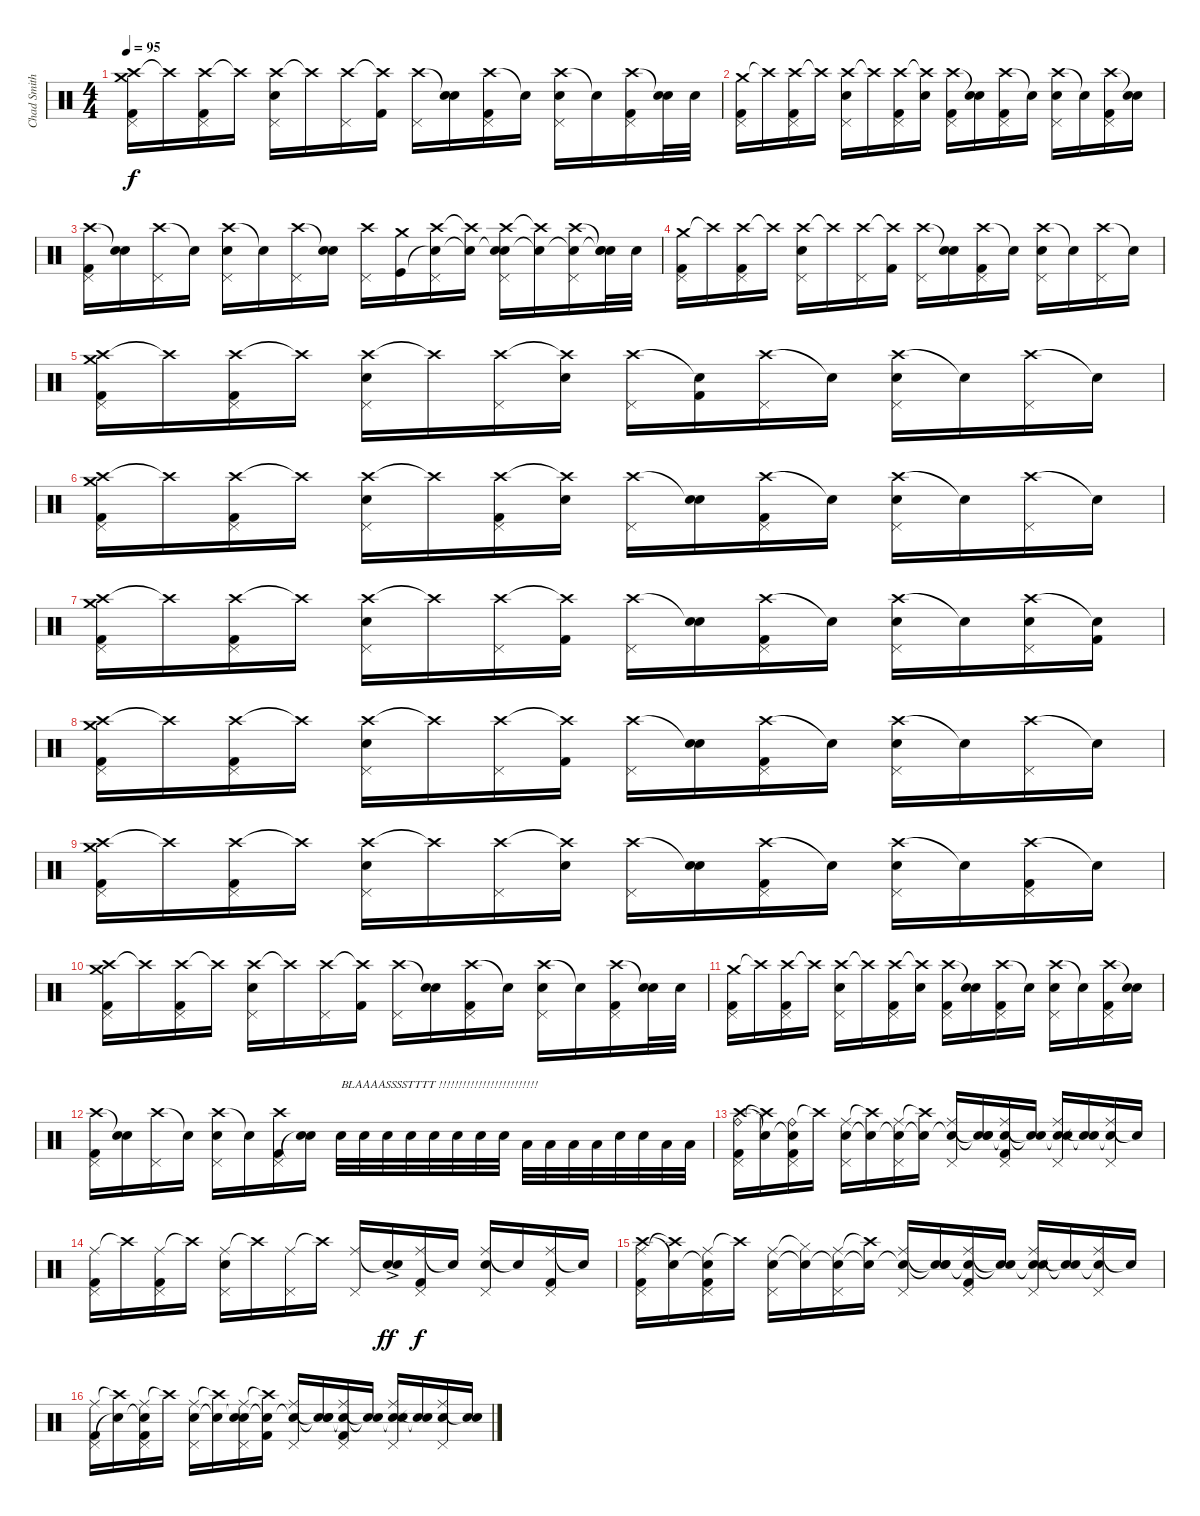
\track ("Chad Smith" "Chad Smith") {instrument percussion}
\staff {score}
\articulation defaults
\ts (4 4)
\tempo 95
\clef neutral
\ks c
("Crash high (hit)" "Crash medium (hit)" "Pedal Hi-Hat (hit)" "Kick (hit) 2").16{dy f} "Crash high (hit)"{t}.16 ("Crash high (hit)" "Pedal Hi-Hat (hit)" "Kick (hit) 2").16 "Crash high (hit)"{t}.16 ("Crash high (hit)" "Snare (hit) 2" "Pedal Hi-Hat (hit)").16 "Crash high (hit)"{t}.16 ("Crash high (hit)" "Pedal Hi-Hat (hit)").16 ("Crash high (hit)"{t} "Kick (hit) 2").16 ("Crash high (hit)" "Pedal Hi-Hat (hit)").16 ("Snare (hit)"{t} "Snare (hit) 2").16 ("Crash high (hit)" "Pedal Hi-Hat (hit)" "Kick (hit) 2").16 "Snare (hit)"{t}.16 ("Crash high (hit)" "Snare (hit) 2" "Pedal Hi-Hat (hit)").16 "Snare (hit)"{t}.16 ("Crash high (hit)" "Pedal Hi-Hat (hit)" "Kick (hit) 2").16 ("Snare (hit)"{t} "Snare (hit) 2").32 "Snare (hit) 2".32 |
("Crash medium (hit)" "Pedal Hi-Hat (hit)" "Kick (hit) 2").16 "Crash high (hit)"{t}.16 ("Crash high (hit)" "Pedal Hi-Hat (hit)" "Kick (hit) 2").16 "Crash high (hit)"{t}.16 ("Crash high (hit)" "Snare (hit) 2" "Pedal Hi-Hat (hit)").16 "Crash high (hit)"{t}.16 ("Crash high (hit)" "Pedal Hi-Hat (hit)" "Kick (hit) 2").16 ("Crash high (hit)"{t} "Snare (hit) 2").16 ("Crash high (hit)" "Pedal Hi-Hat (hit)" "Kick (hit) 2").16 ("Snare (hit)"{t} "Snare (hit) 2").16 ("Crash high (hit)" "Pedal Hi-Hat (hit)" "Kick (hit) 2").16 "Snare (hit)"{t}.16 ("Crash high (hit)" "Snare (hit) 2" "Pedal Hi-Hat (hit)").16 "Snare (hit)"{t}.16 ("Crash high (hit)" "Pedal Hi-Hat (hit)" "Kick (hit) 2").16 ("Snare (hit)"{t} "Snare (hit) 2").16 |
("Crash high (hit)" "Pedal Hi-Hat (hit)" "Kick (hit) 2").16 ("Snare (hit)"{t} "Snare (hit) 2").16 ("Crash high (hit)" "Pedal Hi-Hat (hit)").16 "Snare (hit)"{t}.16 ("Crash high (hit)" "Snare (hit) 2" "Pedal Hi-Hat (hit)").16 "Snare (hit)"{t}.16 ("Crash high (hit)" "Pedal Hi-Hat (hit)").16 ("Snare (hit)"{t} "Snare (hit) 2").16 ("Crash high (hit)" "Pedal Hi-Hat (hit)").16 ("Crash medium (hit)" "Kick (hit)").16 ("Crash high (hit)" "Snare (hit)"{t} "Pedal Hi-Hat (hit)").16 ("Crash high (hit)"{t} "Snare (hit)"{t}).16 ("Crash high (hit)" "Snare (hit)"{t} "Snare (hit) 2" "Pedal Hi-Hat (hit)").16 ("Crash high (hit)"{t} "Snare (hit)"{t}).16 ("Crash high (hit)" "Snare (hit)"{t} "Pedal Hi-Hat (hit)").16 ("Snare (hit)"{t} "Snare (hit)"{t} "Snare (hit) 2").32 "Snare (hit) 2".32 |
("Crash medium (hit)" "Pedal Hi-Hat (hit)" "Kick (hit) 2").16 "Crash high (hit)"{t}.16 ("Crash high (hit)" "Pedal Hi-Hat (hit)" "Kick (hit) 2").16 "Crash high (hit)"{t}.16 ("Crash high (hit)" "Snare (hit) 2" "Pedal Hi-Hat (hit)").16 "Crash high (hit)"{t}.16 ("Crash high (hit)" "Pedal Hi-Hat (hit)").16 ("Crash high (hit)"{t} "Kick (hit) 2").16 ("Crash high (hit)" "Pedal Hi-Hat (hit)").16 ("Snare (hit)"{t} "Snare (hit) 2").16 ("Crash high (hit)" "Pedal Hi-Hat (hit)" "Kick (hit) 2").16 "Snare (hit)"{t}.16 ("Crash high (hit)" "Snare (hit) 2" "Pedal Hi-Hat (hit)").16 "Snare (hit)"{t}.16 ("Crash high (hit)" "Pedal Hi-Hat (hit)").16 "Snare (hit)"{t}.16 |
("Crash high (hit)" "Crash medium (hit)" "Pedal Hi-Hat (hit)" "Kick (hit) 2").16 "Crash high (hit)"{t}.16 ("Crash high (hit)" "Pedal Hi-Hat (hit)" "Kick (hit) 2").16 "Crash high (hit)"{t}.16 ("Crash high (hit)" "Snare (hit) 2" "Pedal Hi-Hat (hit)").16 "Crash high (hit)"{t}.16 ("Crash high (hit)" "Pedal Hi-Hat (hit)").16 ("Crash high (hit)"{t} "Snare (hit) 2").16 ("Crash high (hit)" "Pedal Hi-Hat (hit)").16 ("Snare (hit)"{t} "Kick (hit) 2").16 ("Crash high (hit)" "Pedal Hi-Hat (hit)").16 "Snare (hit)"{t}.16 ("Crash high (hit)" "Snare (hit) 2" "Pedal Hi-Hat (hit)").16 "Snare (hit)"{t}.16 ("Crash high (hit)" "Pedal Hi-Hat (hit)").16 "Snare (hit)"{t}.16 |
("Crash high (hit)" "Crash medium (hit)" "Pedal Hi-Hat (hit)" "Kick (hit) 2").16 "Crash high (hit)"{t}.16 ("Crash high (hit)" "Pedal Hi-Hat (hit)" "Kick (hit) 2").16 "Crash high (hit)"{t}.16 ("Crash high (hit)" "Snare (hit) 2" "Pedal Hi-Hat (hit)").16 "Crash high (hit)"{t}.16 ("Crash high (hit)" "Pedal Hi-Hat (hit)" "Kick (hit) 2").16 ("Crash high (hit)"{t} "Snare (hit) 2").16 ("Crash high (hit)" "Pedal Hi-Hat (hit)").16 ("Snare (hit)"{t} "Snare (hit) 2").16 ("Crash high (hit)" "Pedal Hi-Hat (hit)" "Kick (hit) 2").16 "Snare (hit)"{t}.16 ("Crash high (hit)" "Snare (hit) 2" "Pedal Hi-Hat (hit)").16 "Snare (hit)"{t}.16 ("Crash high (hit)" "Pedal Hi-Hat (hit)").16 "Snare (hit)"{t}.16 |
("Crash high (hit)" "Crash medium (hit)" "Pedal Hi-Hat (hit)" "Kick (hit) 2").16 "Crash high (hit)"{t}.16 ("Crash high (hit)" "Pedal Hi-Hat (hit)" "Kick (hit) 2").16 "Crash high (hit)"{t}.16 ("Crash high (hit)" "Snare (hit) 2" "Pedal Hi-Hat (hit)").16 "Crash high (hit)"{t}.16 ("Crash high (hit)" "Pedal Hi-Hat (hit)").16 ("Crash high (hit)"{t} "Kick (hit) 2").16 ("Crash high (hit)" "Pedal Hi-Hat (hit)").16 ("Snare (hit)"{t} "Snare (hit) 2").16 ("Crash high (hit)" "Pedal Hi-Hat (hit)" "Kick (hit) 2").16 "Snare (hit)"{t}.16 ("Crash high (hit)" "Snare (hit) 2" "Pedal Hi-Hat (hit)").16 "Snare (hit)"{t}.16 ("Crash high (hit)" "Snare (hit) 2" "Pedal Hi-Hat (hit)").16 ("Snare (hit)"{t} "Kick (hit) 2").16 |
("Crash high (hit)" "Crash medium (hit)" "Pedal Hi-Hat (hit)" "Kick (hit) 2").16 "Crash high (hit)"{t}.16 ("Crash high (hit)" "Pedal Hi-Hat (hit)" "Kick (hit) 2").16 "Crash high (hit)"{t}.16 ("Crash high (hit)" "Snare (hit) 2" "Pedal Hi-Hat (hit)").16 "Crash high (hit)"{t}.16 ("Crash high (hit)" "Pedal Hi-Hat (hit)").16 ("Crash high (hit)"{t} "Kick (hit) 2").16 ("Crash high (hit)" "Pedal Hi-Hat (hit)").16 ("Snare (hit)"{t} "Snare (hit) 2").16 ("Crash high (hit)" "Pedal Hi-Hat (hit)" "Kick (hit) 2").16 "Snare (hit)"{t}.16 ("Crash high (hit)" "Snare (hit) 2" "Pedal Hi-Hat (hit)").16 "Snare (hit)"{t}.16 ("Crash high (hit)" "Pedal Hi-Hat (hit)").16 "Snare (hit)"{t}.16 |
("Crash high (hit)" "Crash medium (hit)" "Pedal Hi-Hat (hit)" "Kick (hit) 2").16 "Crash high (hit)"{t}.16 ("Crash high (hit)" "Pedal Hi-Hat (hit)" "Kick (hit) 2").16 "Crash high (hit)"{t}.16 ("Crash high (hit)" "Snare (hit) 2" "Pedal Hi-Hat (hit)").16 "Crash high (hit)"{t}.16 ("Crash high (hit)" "Pedal Hi-Hat (hit)").16 ("Crash high (hit)"{t} "Snare (hit) 2").16 ("Crash high (hit)" "Pedal Hi-Hat (hit)").16 ("Snare (hit)"{t} "Snare (hit) 2").16 ("Crash high (hit)" "Pedal Hi-Hat (hit)" "Kick (hit) 2").16 "Snare (hit)"{t}.16 ("Crash high (hit)" "Snare (hit) 2" "Pedal Hi-Hat (hit)").16 "Snare (hit)"{t}.16 ("Crash high (hit)" "Pedal Hi-Hat (hit)" "Kick (hit) 2").16 "Snare (hit)"{t}.16 |
("Crash high (hit)" "Crash medium (hit)" "Pedal Hi-Hat (hit)" "Kick (hit) 2").16 "Crash high (hit)"{t}.16 ("Crash high (hit)" "Pedal Hi-Hat (hit)" "Kick (hit) 2").16 "Crash high (hit)"{t}.16 ("Crash high (hit)" "Snare (hit) 2" "Pedal Hi-Hat (hit)").16 "Crash high (hit)"{t}.16 ("Crash high (hit)" "Pedal Hi-Hat (hit)").16 ("Crash high (hit)"{t} "Kick (hit) 2").16 ("Crash high (hit)" "Pedal Hi-Hat (hit)").16 ("Snare (hit)"{t} "Snare (hit) 2").16 ("Crash high (hit)" "Pedal Hi-Hat (hit)" "Kick (hit) 2").16 "Snare (hit)"{t}.16 ("Crash high (hit)" "Snare (hit) 2" "Pedal Hi-Hat (hit)").16 "Snare (hit)"{t}.16 ("Crash high (hit)" "Pedal Hi-Hat (hit)" "Kick (hit) 2").16 ("Snare (hit)"{t} "Snare (hit) 2").32 "Snare (hit) 2".32 |
("Crash medium (hit)" "Pedal Hi-Hat (hit)" "Kick (hit) 2").16 "Crash high (hit)"{t}.16 ("Crash high (hit)" "Pedal Hi-Hat (hit)" "Kick (hit) 2").16 "Crash high (hit)"{t}.16 ("Crash high (hit)" "Snare (hit) 2" "Pedal Hi-Hat (hit)").16 "Crash high (hit)"{t}.16 ("Crash high (hit)" "Pedal Hi-Hat (hit)" "Kick (hit) 2").16 ("Crash high (hit)"{t} "Snare (hit) 2").16 ("Crash high (hit)" "Pedal Hi-Hat (hit)" "Kick (hit) 2").16 ("Snare (hit)"{t} "Snare (hit) 2").16 ("Crash high (hit)" "Pedal Hi-Hat (hit)" "Kick (hit) 2").16 "Snare (hit)"{t}.16 ("Crash high (hit)" "Snare (hit) 2" "Pedal Hi-Hat (hit)").16 "Snare (hit)"{t}.16 ("Crash high (hit)" "Pedal Hi-Hat (hit)" "Kick (hit) 2").16 ("Snare (hit)"{t} "Snare (hit) 2").16 |
("Crash high (hit)" "Pedal Hi-Hat (hit)" "Kick (hit) 2").16 ("Snare (hit)"{t} "Snare (hit) 2").16 ("Crash high (hit)" "Pedal Hi-Hat (hit)").16 "Snare (hit)"{t}.16 ("Crash high (hit)" "Snare (hit) 2" "Pedal Hi-Hat (hit)").16 "Snare (hit)"{t}.16 ("Crash high (hit)" "Pedal Hi-Hat (hit)" "Kick (hit) 2").16 ("Snare (hit) 2" "Snare (hit)"{t}).16 "Snare (hit) 2".32{txt "BLAAAASSSSTTTT !!!!!!!!!!!!!!!!!!!!!!!!!"} "Snare (hit) 2".32 "Snare (hit) 2".32 "Snare (hit) 2".32 "Snare (hit) 2".32 "Snare (hit) 2".32 "Snare (hit) 2".32 "Snare (hit) 2".32 "Low Tom (hit)".32 "Low Tom (hit)".32 "Low Tom (hit)".32 "Low Tom (hit)".32 "Snare (hit) 2".32 "Snare (hit) 2".32 "Low Floor Tom (hit)".32 "Low Floor Tom (hit)".32 |
("Ride (bell)" "Crash high (hit)" "Pedal Hi-Hat (hit)" "Kick (hit) 2").16 ("Crash high (hit)"{t} "Snare (hit)"{t}).16 ("Ride (bell)" "Snare (hit)"{t} "Pedal Hi-Hat (hit)" "Kick (hit) 2").16 "Crash high (hit)"{t}.16 ("Ride (middle)" "Snare (hit) 2" "Pedal Hi-Hat (hit)").16 ("Crash high (hit)"{t} "Snare (hit)"{t}).16 ("Ride (middle)" "Snare (hit)"{t} "Pedal Hi-Hat (hit)").16 ("Crash high (hit)"{t} "Snare (hit)"{t}).16 ("Ride (middle)" "Snare (hit)"{t} "Pedal Hi-Hat (hit)").16 ("Snare (hit)"{t} "Snare (hit)"{t} "Snare (hit) 2").16 ("Ride (middle)" "Snare (hit)"{t} "Pedal Hi-Hat (hit)" "Kick (hit) 2").16 ("Snare (hit)"{t} "Snare (hit)"{t}).16 ("Ride (middle)" "Snare (hit)"{t} "Snare (hit) 2" "Pedal Hi-Hat (hit)").16 ("Snare (hit)"{t} "Snare (hit)"{t}).16 ("Ride (middle)" "Snare (hit)"{t} "Pedal Hi-Hat (hit)").16 "Snare (hit)"{t}.16 |
("Ride (middle)" "Pedal Hi-Hat (hit)" "Kick (hit) 2").16 "Crash high (hit)"{t}.16 ("Ride (middle)" "Pedal Hi-Hat (hit)" "Kick (hit) 2").16 "Crash high (hit)"{t}.16 ("Ride (middle)" "Snare (hit) 2" "Pedal Hi-Hat (hit)").16 "Crash high (hit)"{t}.16 ("Ride (middle)" "Pedal Hi-Hat (hit)").16 "Crash high (hit)"{t}.16 ("Ride (middle)" "Pedal Hi-Hat (hit)").16 ("Snare (hit)"{t} "Snare (hit) 2"{ac}).16{dy ff} ("Ride (middle)" "Pedal Hi-Hat (hit)" "Kick (hit) 2").16{dy f} "Snare (hit)"{t}.16 ("Ride (middle)" "Snare (hit) 2" "Pedal Hi-Hat (hit)").16 "Snare (hit)"{t}.16 ("Ride (middle)" "Pedal Hi-Hat (hit)" "Kick (hit) 2").16 "Snare (hit)"{t}.16 |
("Ride (middle)" "Crash high (hit)" "Pedal Hi-Hat (hit)" "Kick (hit) 2").16 ("Crash high (hit)"{t} "Snare (hit)"{t}).16 ("Ride (middle)" "Snare (hit)"{t} "Pedal Hi-Hat (hit)" "Kick (hit) 2").16 "Crash high (hit)"{t}.16 ("Ride (middle)" "Snare (hit) 2" "Pedal Hi-Hat (hit)").16 ("Hi-Hat (closed)"{t} "Snare (hit)"{t}).16 ("Ride (middle)" "Snare (hit)"{t} "Pedal Hi-Hat (hit)").16 ("Crash high (hit)"{t} "Snare (hit)"{t}).16 ("Ride (middle)" "Snare (hit)"{t} "Pedal Hi-Hat (hit)").16 ("Snare (hit)"{t} "Snare (hit)"{t} "Snare (hit) 2").16 ("Ride (middle)" "Snare (hit)"{t} "Pedal Hi-Hat (hit)" "Kick (hit) 2").16 ("Snare (hit)"{t} "Snare (hit)"{t}).16 ("Ride (middle)" "Snare (hit)"{t} "Snare (hit) 2" "Pedal Hi-Hat (hit)").16 ("Snare (hit)"{t} "Snare (hit)"{t}).16 ("Ride (middle)" "Snare (hit)"{t} "Pedal Hi-Hat (hit)").16 "Snare (hit)"{t}.16 |
("Ride (middle)" "Pedal Hi-Hat (hit)" "Kick (hit) 2").16 ("Crash high (hit)"{t} "Snare (hit)"{t}).16 ("Ride (middle)" "Snare (hit)"{t} "Pedal Hi-Hat (hit)" "Kick (hit) 2").16 "Crash high (hit)"{t}.16 ("Ride (middle)" "Snare (hit) 2" "Pedal Hi-Hat (hit)").16 ("Crash high (hit)"{t} "Snare (hit)"{t}).16 ("Ride (middle)" "Snare (hit)"{t} "Snare (hit) 2" "Pedal Hi-Hat (hit)").16 ("Crash high (hit)"{t} "Snare (hit)"{t} "Kick (hit) 2").16 ("Ride (middle)" "Snare (hit)"{t} "Pedal Hi-Hat (hit)").16 ("Snare (hit)"{t} "Snare (hit)"{t} "Snare (hit) 2").16 ("Ride (middle)" "Snare (hit)"{t} "Pedal Hi-Hat (hit)" "Kick (hit) 2").16 ("Snare (hit)"{t} "Snare (hit)"{t}).16 ("Ride (middle)" "Snare (hit)"{t} "Snare (hit) 2" "Pedal Hi-Hat (hit)").16 ("Snare (hit)"{t} "Snare (hit)"{t}).16 ("Ride (middle)" "Snare (hit) 2" "Pedal Hi-Hat (hit)").16 ("Snare (hit)"{t} "Snare (hit) 2").16
